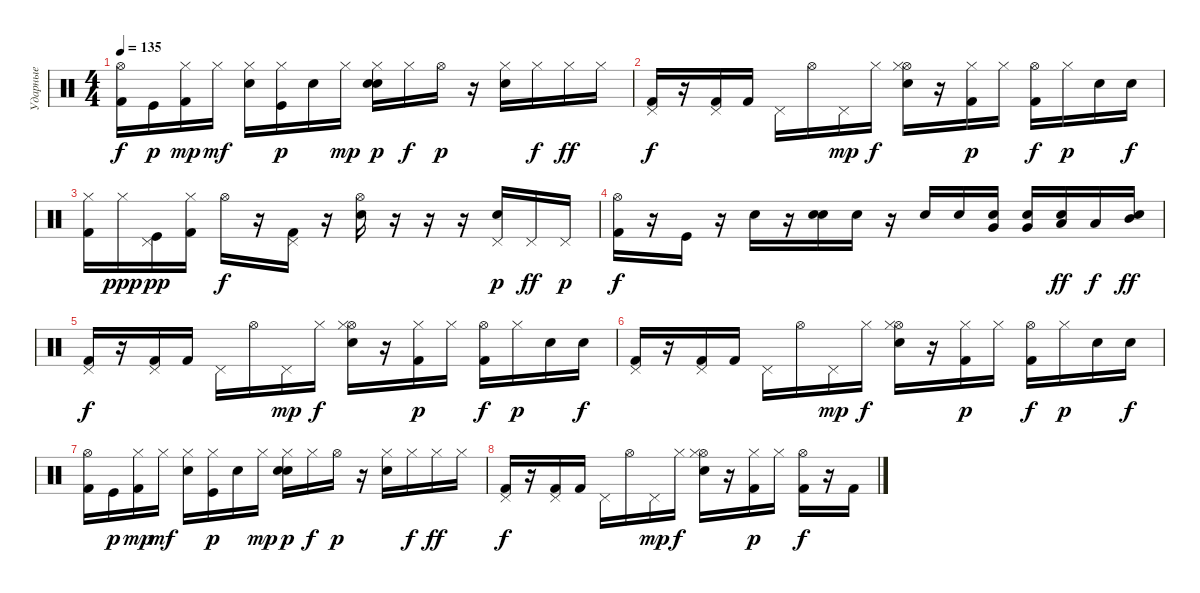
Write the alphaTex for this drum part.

\track ("Ударные" "Ударные") {instrument percussion}
\staff {score}
\articulation defaults
\ts (4 4)
\tempo 135
\clef neutral
\ks c
("Hi-Hat (open)" "Kick (hit) 2").16{dy f} "Kick (hit)".16{dy p} ("Kick (hit) 2" "Hi-Hat (closed)").16{dy mp} "Hi-Hat (closed)".16{dy mf} ("Snare (hit) 2" "Hi-Hat (closed)").16 ("Kick (hit)" "Hi-Hat (closed)").16{dy p} "Snare (hit)".16 "Hi-Hat (closed)".16{dy mp} ("Electric Snare (hit)" "Snare (hit) 2" "Hi-Hat (closed)").16{dy p} "Hi-Hat (closed)".16{dy f} "Hi-Hat (open)".16{dy p} r.16 ("Electric Snare (hit)" "Hi-Hat (closed)").16 "Hi-Hat (closed)".16{dy f} "Hi-Hat (closed)".16{dy ff} "Hi-Hat (closed)".16 |
("Kick (hit) 2" "Pedal Hi-Hat (hit)").16{dy f} r.16 ("Kick (hit) 2" "Pedal Hi-Hat (hit)").16 "Kick (hit) 2".16 "Pedal Hi-Hat (hit)".16 "Hi-Hat (open)".16 "Pedal Hi-Hat (hit)".16{dy mp} "Hi-Hat (closed)".16{dy f} ("Snare (hit) 2" "Hi-Hat (open)" "Hi-Hat (closed)").16 r.16 ("Kick (hit) 2" "Hi-Hat (closed)").16{dy p} "Hi-Hat (closed)".16 ("Kick (hit) 2" "Hi-Hat (open)").16{dy f} "Hi-Hat (closed)".16{dy p} "Snare (hit) 2".16 "Snare (hit) 2".16{dy f} |
("Hi-Hat (closed)" "Kick (hit) 2").16 "Hi-Hat (closed)".16{dy ppp} ("Pedal Hi-Hat (hit)" "Kick (hit)").16{dy pp} ("Hi-Hat (closed)" "Kick (hit) 2").16 "Hi-Hat (open)".16{dy f} r.16 ("Pedal Hi-Hat (hit)" "Kick (hit) 2").16 r.16 ("Hi-Hat (open)" "Electric Snare (hit)").16 r.16 r.16 r.16 ("Pedal Hi-Hat (hit)" "Electric Snare (hit)").16{dy p} "Pedal Hi-Hat (hit)".16{dy ff} "Pedal Hi-Hat (hit)".16{dy p} |
("Hi-Hat (open)" "Kick (hit) 2").16{dy f} r.16 "Kick (hit)".16 r.16 "Snare (hit) 2".16 r.16 ("Snare (hit) 2" "Electric Snare (hit)").16 "Electric Snare (hit)".16 r.16 "Electric Snare (hit)".16 "Electric Snare (hit)".16 ("Electric Snare (hit)" "Very Low Tom (hit)").16 ("Electric Snare (hit)" "Very Low Tom (hit)").16 ("Electric Snare (hit)" "Low Tom (hit)").16{dy ff} "Low Tom (hit)".16{dy f} ("Electric Snare (hit)" "Mid Tom (hit)").16{dy ff} |
("Kick (hit) 2" "Pedal Hi-Hat (hit)").16{dy f} r.16 ("Kick (hit) 2" "Pedal Hi-Hat (hit)").16 "Kick (hit) 2".16 "Pedal Hi-Hat (hit)".16 "Hi-Hat (open)".16 "Pedal Hi-Hat (hit)".16{dy mp} "Hi-Hat (closed)".16{dy f} ("Snare (hit) 2" "Hi-Hat (open)" "Hi-Hat (closed)").16 r.16 ("Kick (hit) 2" "Hi-Hat (closed)").16{dy p} "Hi-Hat (closed)".16 ("Kick (hit) 2" "Hi-Hat (open)").16{dy f} "Hi-Hat (closed)".16{dy p} "Snare (hit) 2".16 "Snare (hit) 2".16{dy f} |
("Kick (hit) 2" "Pedal Hi-Hat (hit)").16 r.16 ("Kick (hit) 2" "Pedal Hi-Hat (hit)").16 "Kick (hit) 2".16 "Pedal Hi-Hat (hit)".16 "Hi-Hat (open)".16 "Pedal Hi-Hat (hit)".16{dy mp} "Hi-Hat (closed)".16{dy f} ("Snare (hit) 2" "Hi-Hat (open)" "Hi-Hat (closed)").16 r.16 ("Kick (hit) 2" "Hi-Hat (closed)").16{dy p} "Hi-Hat (closed)".16 ("Kick (hit) 2" "Hi-Hat (open)").16{dy f} "Hi-Hat (closed)".16{dy p} "Snare (hit) 2".16 "Snare (hit) 2".16{dy f} |
("Hi-Hat (open)" "Kick (hit) 2").16 "Kick (hit)".16{dy p} ("Kick (hit) 2" "Hi-Hat (closed)").16{dy mp} "Hi-Hat (closed)".16{dy mf} ("Snare (hit) 2" "Hi-Hat (closed)").16 ("Kick (hit)" "Hi-Hat (closed)").16{dy p} "Snare (hit)".16 "Hi-Hat (closed)".16{dy mp} ("Electric Snare (hit)" "Snare (hit) 2" "Hi-Hat (closed)").16{dy p} "Hi-Hat (closed)".16{dy f} "Hi-Hat (open)".16{dy p} r.16 ("Electric Snare (hit)" "Hi-Hat (closed)").16 "Hi-Hat (closed)".16{dy f} "Hi-Hat (closed)".16{dy ff} "Hi-Hat (closed)".16 |
("Kick (hit) 2" "Pedal Hi-Hat (hit)").16{dy f} r.16 ("Kick (hit) 2" "Pedal Hi-Hat (hit)").16 "Kick (hit) 2".16 "Pedal Hi-Hat (hit)".16 "Hi-Hat (open)".16 "Pedal Hi-Hat (hit)".16{dy mp} "Hi-Hat (closed)".16{dy f} ("Snare (hit) 2" "Hi-Hat (open)" "Hi-Hat (closed)").16 r.16 ("Kick (hit) 2" "Hi-Hat (closed)").16{dy p} "Hi-Hat (closed)".16 ("Kick (hit) 2" "Hi-Hat (open)").16{dy f} r.16 "Kick (hit) 2".16
